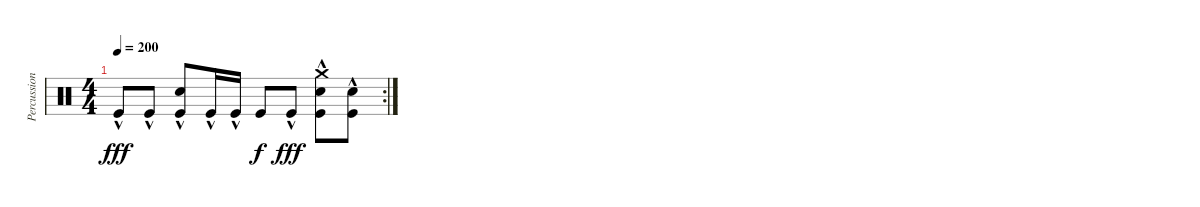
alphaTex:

\track ("Percussion" "Percussion") {instrument percussion}
\staff {score}
\articulation defaults
\rc 2
\ts (4 4)
\tempo 200
\clef neutral
\ks c "Kick (hit)"{hac}.8{dy fff} "Kick (hit)"{hac}.8
("Electric Snare (hit)" "Kick (hit)"{hac}).8 "Kick (hit)"{hac}.16 "Kick (hit)"{hac}.16 "Kick (hit)".8{dy f} "Kick (hit)"{hac}.8{dy fff} ("Crash medium (hit)" "Electric Snare (hit)" "Kick (hit)"{hac}).8 ("Electric Snare (hit)" "Kick (hit)"{hac}).8
